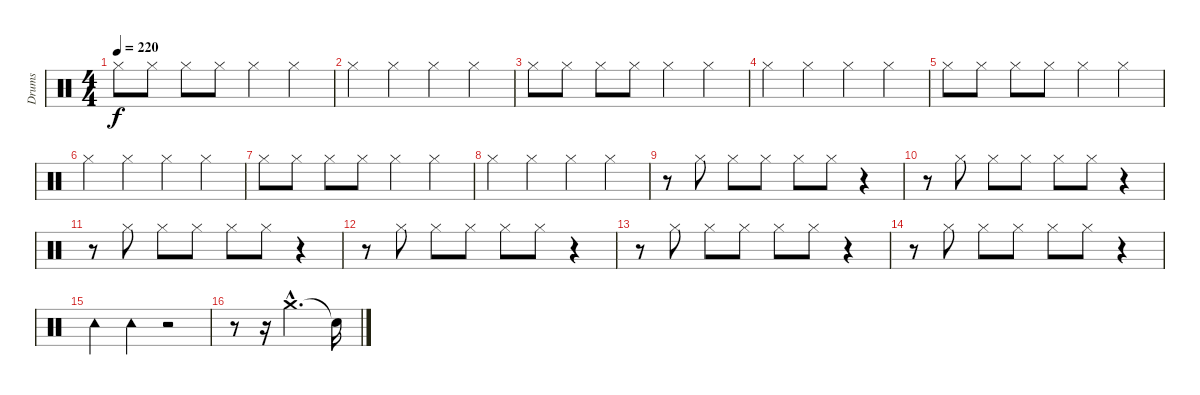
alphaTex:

\track ("Drums" "Drums") {instrument percussion}
\staff {score}
\articulation defaults
\ts (4 4)
\tempo 220
\clef neutral
\ks c "Hi-Hat (closed)".8{dy f} "Hi-Hat (closed)".8 "Hi-Hat (closed)".8 "Hi-Hat (closed)".8 "Hi-Hat (closed)".4 "Hi-Hat (closed)".4
|
"Hi-Hat (closed)".4 "Hi-Hat (closed)".4 "Hi-Hat (closed)".4 "Hi-Hat (closed)".4 |
"Hi-Hat (closed)".8 "Hi-Hat (closed)".8 "Hi-Hat (closed)".8 "Hi-Hat (closed)".8 "Hi-Hat (closed)".4 "Hi-Hat (closed)".4 |
"Hi-Hat (closed)".4 "Hi-Hat (closed)".4 "Hi-Hat (closed)".4 "Hi-Hat (closed)".4 |
"Hi-Hat (closed)".8 "Hi-Hat (closed)".8 "Hi-Hat (closed)".8 "Hi-Hat (closed)".8 "Hi-Hat (closed)".4 "Hi-Hat (closed)".4 |
"Hi-Hat (closed)".4 "Hi-Hat (closed)".4 "Hi-Hat (closed)".4 "Hi-Hat (closed)".4 |
"Hi-Hat (closed)".8 "Hi-Hat (closed)".8 "Hi-Hat (closed)".8 "Hi-Hat (closed)".8 "Hi-Hat (closed)".4 "Hi-Hat (closed)".4 |
"Hi-Hat (closed)".4 "Hi-Hat (closed)".4 "Hi-Hat (closed)".4 "Hi-Hat (closed)".4 |
r.8 "Hi-Hat (closed)".8 "Hi-Hat (closed)".8 "Hi-Hat (closed)".8 "Hi-Hat (closed)".8 "Hi-Hat (closed)".8 r.4 |
r.8 "Hi-Hat (closed)".8 "Hi-Hat (closed)".8 "Hi-Hat (closed)".8 "Hi-Hat (closed)".8 "Hi-Hat (closed)".8 r.4 |
r.8 "Hi-Hat (closed)".8 "Hi-Hat (closed)".8 "Hi-Hat (closed)".8 "Hi-Hat (closed)".8 "Hi-Hat (closed)".8 r.4 |
r.8 "Hi-Hat (closed)".8 "Hi-Hat (closed)".8 "Hi-Hat (closed)".8 "Hi-Hat (closed)".8 "Hi-Hat (closed)".8 r.4 |
r.8 "Hi-Hat (closed)".8 "Hi-Hat (closed)".8 "Hi-Hat (closed)".8 "Hi-Hat (closed)".8 "Hi-Hat (closed)".8 r.4 |
r.8 "Hi-Hat (closed)".8 "Hi-Hat (closed)".8 "Hi-Hat (closed)".8 "Hi-Hat (closed)".8 "Hi-Hat (closed)".8 r.4 |
"Tambourine (hit)".4 "Tambourine (hit)".4 r.2 |
r.8 r.16 "Crash medium (hit)"{hac}.2{d} "Snare (hit)"{t}.16
